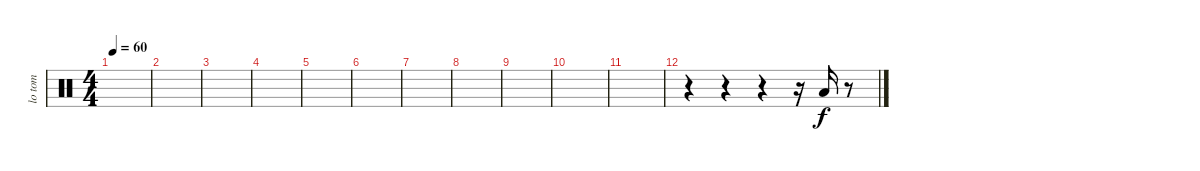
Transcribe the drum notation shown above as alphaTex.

\track ("lo tom" "lo tom") {instrument percussion}
\staff {score}
\articulation defaults
\ts (4 4)
\tempo 60
\clef neutral
\ks c
|
|
|
|
|
|
|
|
|
|
|
r.4 r.4 r.4 r.16 "Low Tom (hit)".16 r.8
